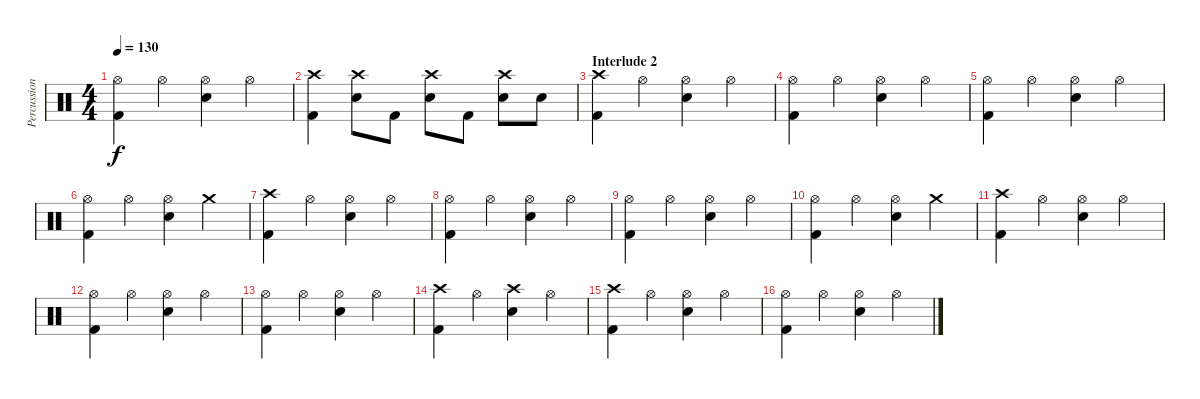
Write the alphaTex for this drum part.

\track ("Percussion" "Percussion") {instrument percussion}
\staff {score}
\articulation defaults
\ts (4 4)
\tempo 130
\clef neutral
\ks c
("Hi-Hat (open)" "Kick (hit) 2").4{dy f} "Hi-Hat (open)".4 ("Hi-Hat (open)" "Snare (hit) 2").4 "Hi-Hat (open)".4 |
("Crash high (hit)" "Kick (hit) 2").4 ("Crash high (hit)" "Snare (hit) 2").8 "Kick (hit) 2".8 ("Crash high (hit)" "Snare (hit) 2").8 "Kick (hit) 2".8 ("Crash high (hit)" "Snare (hit) 2").8 "Snare (hit) 2".8 |
\section ("" "Interlude 2")
("Crash high (hit)" "Kick (hit) 2").4 "Hi-Hat (open)".4 ("Hi-Hat (open)" "Snare (hit) 2").4 "Hi-Hat (open)".4 |
("Hi-Hat (open)" "Kick (hit) 2").4 "Hi-Hat (open)".4 ("Hi-Hat (open)" "Snare (hit) 2").4 "Hi-Hat (open)".4 |
("Hi-Hat (open)" "Kick (hit) 2").4 "Hi-Hat (open)".4 ("Hi-Hat (open)" "Snare (hit) 2").4 "Hi-Hat (open)".4 |
("Hi-Hat (open)" "Kick (hit) 2").4 "Hi-Hat (open)".4 ("Hi-Hat (open)" "Snare (hit) 2").4 "Crash medium (hit)".4 |
("Crash high (hit)" "Kick (hit) 2").4 "Hi-Hat (open)".4 ("Hi-Hat (open)" "Snare (hit) 2").4 "Hi-Hat (open)".4 |
("Hi-Hat (open)" "Kick (hit) 2").4 "Hi-Hat (open)".4 ("Hi-Hat (open)" "Snare (hit) 2").4 "Hi-Hat (open)".4 |
("Hi-Hat (open)" "Kick (hit) 2").4 "Hi-Hat (open)".4 ("Hi-Hat (open)" "Snare (hit) 2").4 "Hi-Hat (open)".4 |
("Hi-Hat (open)" "Kick (hit) 2").4 "Hi-Hat (open)".4 ("Hi-Hat (open)" "Snare (hit) 2").4 "Crash medium (hit)".4 |
("Crash high (hit)" "Kick (hit) 2").4 "Hi-Hat (open)".4 ("Hi-Hat (open)" "Snare (hit) 2").4 "Hi-Hat (open)".4 |
("Hi-Hat (open)" "Kick (hit) 2").4 "Hi-Hat (open)".4 ("Hi-Hat (open)" "Snare (hit) 2").4 "Hi-Hat (open)".4 |
("Hi-Hat (open)" "Kick (hit) 2").4 "Hi-Hat (open)".4 ("Hi-Hat (open)" "Snare (hit) 2").4 "Hi-Hat (open)".4 |
("Crash high (hit)" "Kick (hit) 2").4 "Hi-Hat (open)".4 ("Crash high (hit)" "Snare (hit) 2").4 "Hi-Hat (open)".4 |
("Crash high (hit)" "Kick (hit) 2").4 "Hi-Hat (open)".4 ("Hi-Hat (open)" "Snare (hit) 2").4 "Hi-Hat (open)".4 |
("Hi-Hat (open)" "Kick (hit) 2").4 "Hi-Hat (open)".4 ("Hi-Hat (open)" "Snare (hit) 2").4 "Hi-Hat (open)".4
